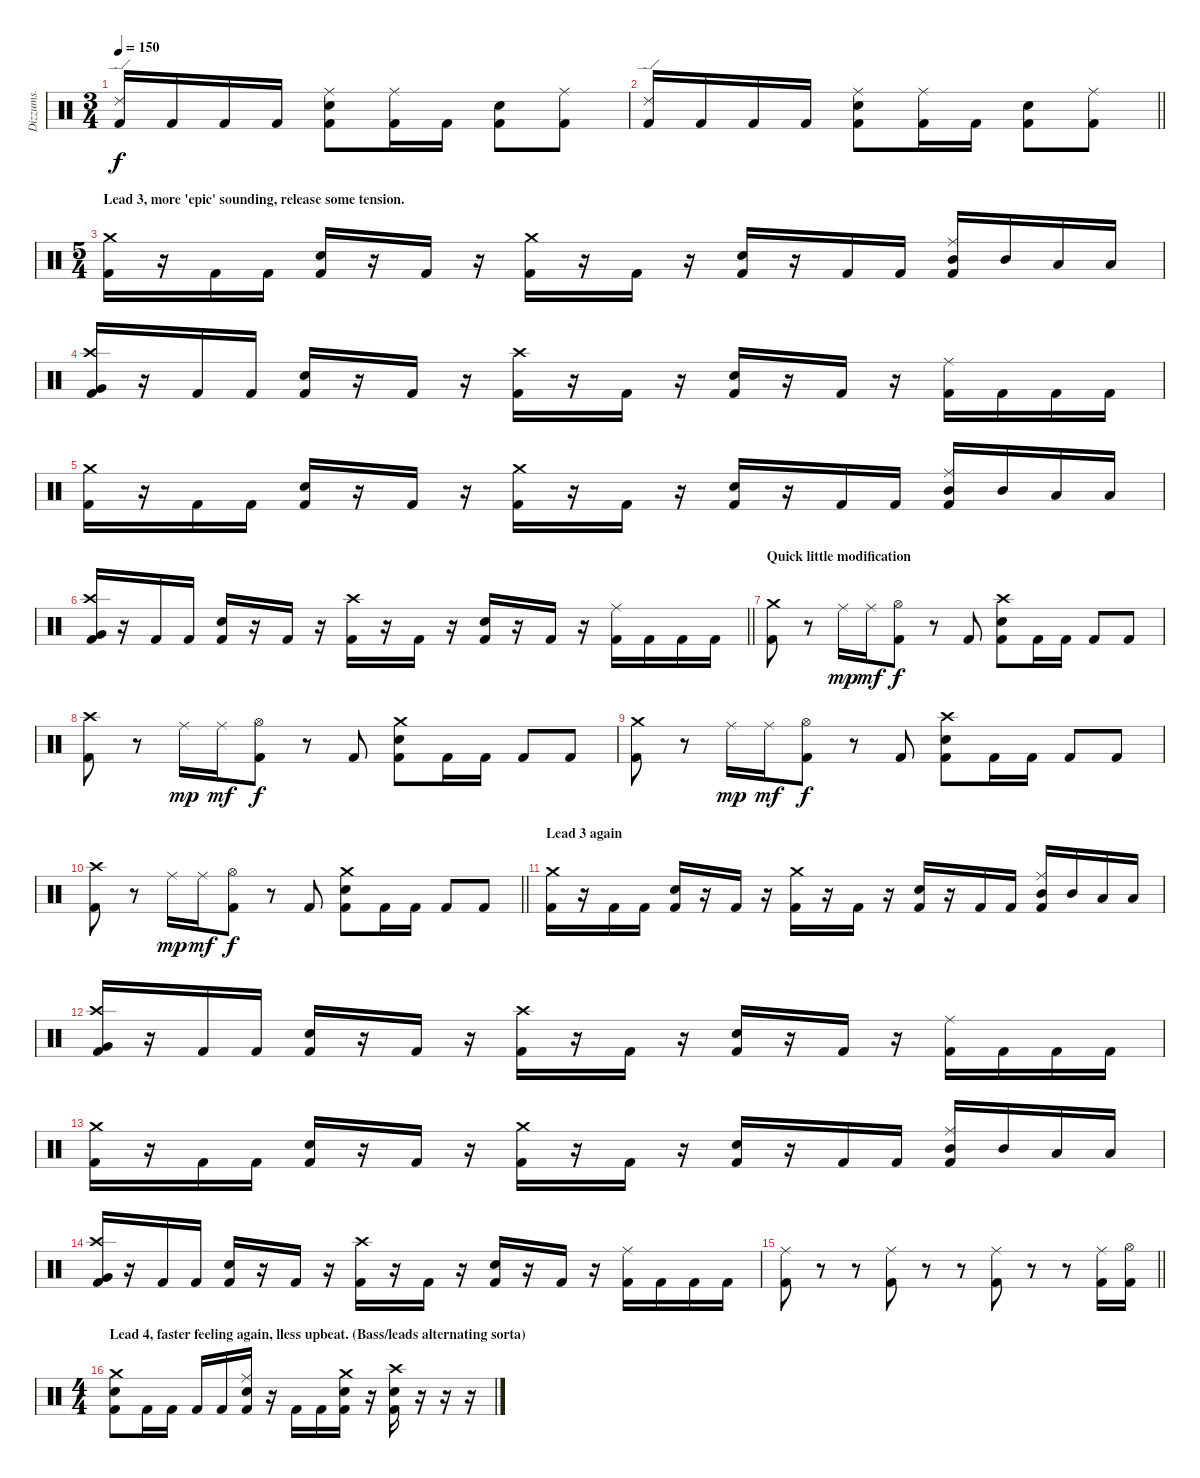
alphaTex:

\track ("Dizzums." "Dizzums.") {instrument percussion}
\staff {score}
\articulation defaults
\ts (3 4)
\tempo 150
\clef neutral
\ks c
("Ride (edge) 2" "Kick (hit) 2").16{dy f} "Kick (hit) 2".16 "Kick (hit) 2".16 "Kick (hit) 2".16 ("Ride (middle)" "Electric Snare (hit)" "Kick (hit) 2").8 ("Ride (middle)" "Kick (hit) 2").16 "Kick (hit) 2".16 ("Electric Snare (hit)" "Kick (hit) 2").8 ("Ride (middle)" "Kick (hit) 2").8 |
\barLineRight lightlight
("Ride (edge) 2" "Kick (hit) 2").16 "Kick (hit) 2".16 "Kick (hit) 2".16 "Kick (hit) 2".16 ("Ride (middle)" "Electric Snare (hit)" "Kick (hit) 2").8 ("Ride (middle)" "Kick (hit) 2").16 "Kick (hit) 2".16 ("Electric Snare (hit)" "Kick (hit) 2").8 ("Ride (middle)" "Kick (hit) 2").8 |
\ts (5 4)
\section ("" "Lead 3, more 'epic' sounding, release some tension.")
("Crash medium (hit)" "Kick (hit) 2").16 r.16 "Kick (hit) 2".16 "Kick (hit) 2".16 ("Electric Snare (hit)" "Kick (hit) 2").16 r.16 "Kick (hit) 2".16 r.16 ("Crash medium (hit)" "Kick (hit) 2").16 r.16 "Kick (hit) 2".16 r.16 ("Electric Snare (hit)" "Kick (hit) 2").16 r.16 "Kick (hit) 2".16 "Kick (hit) 2".16 ("Ride (middle)" "Mid Tom (hit)" "Kick (hit) 2").16 "Mid Tom (hit)".16 "Low Tom (hit)".16 "Low Tom (hit)".16 |
("Crash high (hit)" "Very Low Tom (hit)" "Kick (hit) 2").16 r.16 "Kick (hit) 2".16 "Kick (hit) 2".16 ("Electric Snare (hit)" "Kick (hit) 2").16 r.16 "Kick (hit) 2".16 r.16 ("Crash high (hit)" "Kick (hit) 2").16 r.16 "Kick (hit) 2".16 r.16 ("Electric Snare (hit)" "Kick (hit) 2").16 r.16 "Kick (hit) 2".16 r.16 ("Ride (middle)" "Kick (hit) 2").16 "Kick (hit) 2".16 "Kick (hit) 2".16 "Kick (hit) 2".16 |
("Crash medium (hit)" "Kick (hit) 2").16 r.16 "Kick (hit) 2".16 "Kick (hit) 2".16 ("Electric Snare (hit)" "Kick (hit) 2").16 r.16 "Kick (hit) 2".16 r.16 ("Crash medium (hit)" "Kick (hit) 2").16 r.16 "Kick (hit) 2".16 r.16 ("Electric Snare (hit)" "Kick (hit) 2").16 r.16 "Kick (hit) 2".16 "Kick (hit) 2".16 ("Ride (middle)" "Mid Tom (hit)" "Kick (hit) 2").16 "Mid Tom (hit)".16 "Low Tom (hit)".16 "Low Tom (hit)".16 |
\barLineRight lightlight
("Crash high (hit)" "Very Low Tom (hit)" "Kick (hit) 2").16 r.16 "Kick (hit) 2".16 "Kick (hit) 2".16 ("Electric Snare (hit)" "Kick (hit) 2").16 r.16 "Kick (hit) 2".16 r.16 ("Crash high (hit)" "Kick (hit) 2").16 r.16 "Kick (hit) 2".16 r.16 ("Electric Snare (hit)" "Kick (hit) 2").16 r.16 "Kick (hit) 2".16 r.16 ("Ride (middle)" "Kick (hit) 2").16 "Kick (hit) 2".16 "Kick (hit) 2".16 "Kick (hit) 2".16 |
\section ("" "Quick little modification")
("Crash medium (hit)" "Kick (hit) 2").8 r.8 "Ride (middle)".16{dy mp} "Ride (middle)".16{dy mf} ("Hi-Hat (open)" "Kick (hit) 2").8{dy f} r.8 "Kick (hit) 2".8 ("Crash high (hit)" "Electric Snare (hit)" "Kick (hit) 2").8 "Kick (hit) 2".16 "Kick (hit) 2".16 "Kick (hit) 2".8 "Kick (hit) 2".8 |
("Crash high (hit)" "Kick (hit) 2").8 r.8 "Ride (middle)".16{dy mp} "Ride (middle)".16{dy mf} ("Hi-Hat (open)" "Kick (hit) 2").8{dy f} r.8 "Kick (hit) 2".8 ("Crash medium (hit)" "Electric Snare (hit)" "Kick (hit) 2").8 "Kick (hit) 2".16 "Kick (hit) 2".16 "Kick (hit) 2".8 "Kick (hit) 2".8 |
("Crash medium (hit)" "Kick (hit) 2").8 r.8 "Ride (middle)".16{dy mp} "Ride (middle)".16{dy mf} ("Hi-Hat (open)" "Kick (hit) 2").8{dy f} r.8 "Kick (hit) 2".8 ("Crash high (hit)" "Electric Snare (hit)" "Kick (hit) 2").8 "Kick (hit) 2".16 "Kick (hit) 2".16 "Kick (hit) 2".8 "Kick (hit) 2".8 |
\barLineRight lightlight
("Crash high (hit)" "Kick (hit) 2").8 r.8 "Ride (middle)".16{dy mp} "Ride (middle)".16{dy mf} ("Hi-Hat (open)" "Kick (hit) 2").8{dy f} r.8 "Kick (hit) 2".8 ("Crash medium (hit)" "Electric Snare (hit)" "Kick (hit) 2").8 "Kick (hit) 2".16 "Kick (hit) 2".16 "Kick (hit) 2".8 "Kick (hit) 2".8 |
\section ("" "Lead 3 again")
("Crash medium (hit)" "Kick (hit) 2").16 r.16 "Kick (hit) 2".16 "Kick (hit) 2".16 ("Electric Snare (hit)" "Kick (hit) 2").16 r.16 "Kick (hit) 2".16 r.16 ("Crash medium (hit)" "Kick (hit) 2").16 r.16 "Kick (hit) 2".16 r.16 ("Electric Snare (hit)" "Kick (hit) 2").16 r.16 "Kick (hit) 2".16 "Kick (hit) 2".16 ("Ride (middle)" "Mid Tom (hit)" "Kick (hit) 2").16 "Mid Tom (hit)".16 "Low Tom (hit)".16 "Low Tom (hit)".16 |
("Crash high (hit)" "Very Low Tom (hit)" "Kick (hit) 2").16 r.16 "Kick (hit) 2".16 "Kick (hit) 2".16 ("Electric Snare (hit)" "Kick (hit) 2").16 r.16 "Kick (hit) 2".16 r.16 ("Crash high (hit)" "Kick (hit) 2").16 r.16 "Kick (hit) 2".16 r.16 ("Electric Snare (hit)" "Kick (hit) 2").16 r.16 "Kick (hit) 2".16 r.16 ("Ride (middle)" "Kick (hit) 2").16 "Kick (hit) 2".16 "Kick (hit) 2".16 "Kick (hit) 2".16 |
("Crash medium (hit)" "Kick (hit) 2").16 r.16 "Kick (hit) 2".16 "Kick (hit) 2".16 ("Electric Snare (hit)" "Kick (hit) 2").16 r.16 "Kick (hit) 2".16 r.16 ("Crash medium (hit)" "Kick (hit) 2").16 r.16 "Kick (hit) 2".16 r.16 ("Electric Snare (hit)" "Kick (hit) 2").16 r.16 "Kick (hit) 2".16 "Kick (hit) 2".16 ("Ride (middle)" "Mid Tom (hit)" "Kick (hit) 2").16 "Mid Tom (hit)".16 "Low Tom (hit)".16 "Low Tom (hit)".16 |
("Crash high (hit)" "Very Low Tom (hit)" "Kick (hit) 2").16 r.16 "Kick (hit) 2".16 "Kick (hit) 2".16 ("Electric Snare (hit)" "Kick (hit) 2").16 r.16 "Kick (hit) 2".16 r.16 ("Crash high (hit)" "Kick (hit) 2").16 r.16 "Kick (hit) 2".16 r.16 ("Electric Snare (hit)" "Kick (hit) 2").16 r.16 "Kick (hit) 2".16 r.16 ("Ride (middle)" "Kick (hit) 2").16 "Kick (hit) 2".16 "Kick (hit) 2".16 "Kick (hit) 2".16 |
\barLineRight lightlight
("Ride (middle)" "Kick (hit) 2").8 r.8 r.8 ("Ride (middle)" "Kick (hit) 2").8 r.8 r.8 ("Ride (middle)" "Kick (hit) 2").8 r.8 r.8 ("Ride (middle)" "Kick (hit) 2").16 ("Hi-Hat (open)" "Kick (hit) 2").16 |
\ts (4 4)
\section ("" "Lead 4, faster feeling again, lless upbeat. (Bass/leads alternating sorta)")
("Crash medium (hit)" "Electric Snare (hit)" "Kick (hit) 2").8 "Kick (hit) 2".16 "Kick (hit) 2".16 "Kick (hit) 2".16 "Kick (hit) 2".16 ("Ride (middle)" "Electric Snare (hit)" "Kick (hit) 2").16 r.16 "Kick (hit) 2".16 "Kick (hit) 2".16 ("Crash medium (hit)" "Electric Snare (hit)" "Kick (hit) 2").16 r.16 ("Crash high (hit)" "Electric Snare (hit)" "Kick (hit) 2").16 r.16 r.16 r.16
